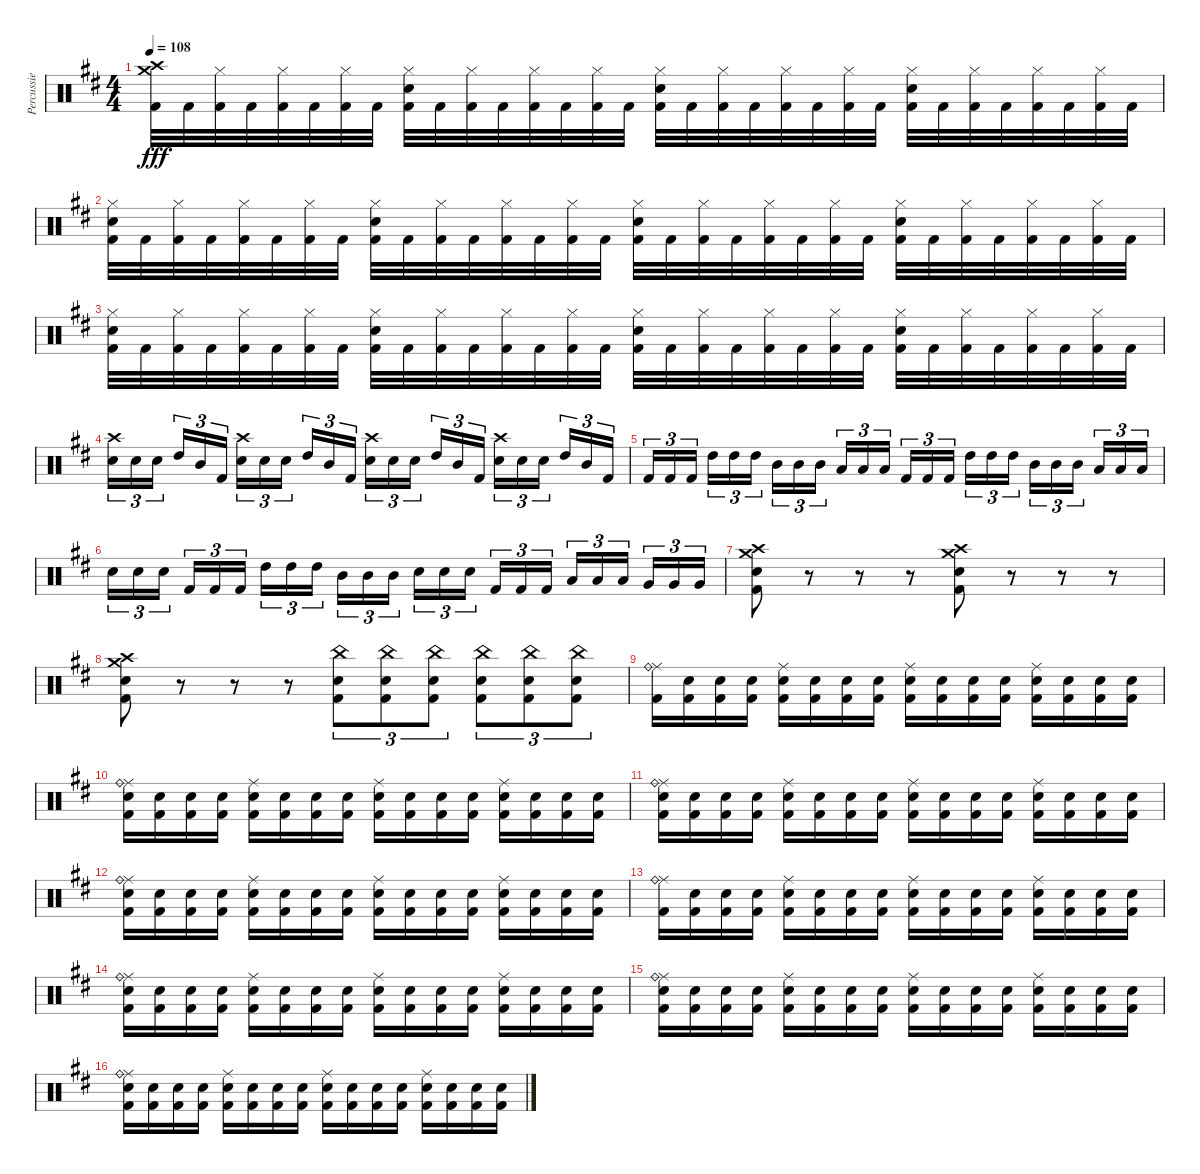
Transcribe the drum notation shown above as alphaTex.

\track ("Percussie" "Percussie") {instrument percussion}
\staff {score}
\articulation defaults
\ts (4 4)
\tempo 108
\clef neutral
\ks d
("Crash high (hit)" "Crash medium (hit)" "Kick (hit) 2").32{dy fff} "Kick (hit) 2".32 ("Hi-Hat (closed)" "Kick (hit) 2").32 "Kick (hit) 2".32 ("Hi-Hat (closed)" "Kick (hit) 2").32 "Kick (hit) 2".32 ("Hi-Hat (closed)" "Kick (hit) 2").32 "Kick (hit) 2".32 ("Hi-Hat (closed)" "Snare (hit) 2" "Kick (hit) 2").32 "Kick (hit) 2".32 ("Hi-Hat (closed)" "Kick (hit) 2").32 "Kick (hit) 2".32 ("Hi-Hat (closed)" "Kick (hit) 2").32 "Kick (hit) 2".32 ("Hi-Hat (closed)" "Kick (hit) 2").32 "Kick (hit) 2".32 ("Hi-Hat (closed)" "Snare (hit) 2" "Kick (hit) 2").32 "Kick (hit) 2".32 ("Hi-Hat (closed)" "Kick (hit) 2").32 "Kick (hit) 2".32 ("Hi-Hat (closed)" "Kick (hit) 2").32 "Kick (hit) 2".32 ("Hi-Hat (closed)" "Kick (hit) 2").32 "Kick (hit) 2".32 ("Hi-Hat (closed)" "Snare (hit) 2" "Kick (hit) 2").32 "Kick (hit) 2".32 ("Hi-Hat (closed)" "Kick (hit) 2").32 "Kick (hit) 2".32 ("Hi-Hat (closed)" "Kick (hit) 2").32 "Kick (hit) 2".32 ("Hi-Hat (closed)" "Kick (hit) 2").32 "Kick (hit) 2".32 |
("Hi-Hat (closed)" "Snare (hit) 2" "Kick (hit) 2").32 "Kick (hit) 2".32 ("Hi-Hat (closed)" "Kick (hit) 2").32 "Kick (hit) 2".32 ("Hi-Hat (closed)" "Kick (hit) 2").32 "Kick (hit) 2".32 ("Hi-Hat (closed)" "Kick (hit) 2").32 "Kick (hit) 2".32 ("Hi-Hat (closed)" "Snare (hit) 2" "Kick (hit) 2").32 "Kick (hit) 2".32 ("Hi-Hat (closed)" "Kick (hit) 2").32 "Kick (hit) 2".32 ("Hi-Hat (closed)" "Kick (hit) 2").32 "Kick (hit) 2".32 ("Hi-Hat (closed)" "Kick (hit) 2").32 "Kick (hit) 2".32 ("Hi-Hat (closed)" "Snare (hit) 2" "Kick (hit) 2").32 "Kick (hit) 2".32 ("Hi-Hat (closed)" "Kick (hit) 2").32 "Kick (hit) 2".32 ("Hi-Hat (closed)" "Kick (hit) 2").32 "Kick (hit) 2".32 ("Hi-Hat (closed)" "Kick (hit) 2").32 "Kick (hit) 2".32 ("Hi-Hat (closed)" "Snare (hit) 2" "Kick (hit) 2").32 "Kick (hit) 2".32 ("Hi-Hat (closed)" "Kick (hit) 2").32 "Kick (hit) 2".32 ("Hi-Hat (closed)" "Kick (hit) 2").32 "Kick (hit) 2".32 ("Hi-Hat (closed)" "Kick (hit) 2").32 "Kick (hit) 2".32 |
("Hi-Hat (closed)" "Snare (hit) 2" "Kick (hit) 2").32 "Kick (hit) 2".32 ("Hi-Hat (closed)" "Kick (hit) 2").32 "Kick (hit) 2".32 ("Hi-Hat (closed)" "Kick (hit) 2").32 "Kick (hit) 2".32 ("Hi-Hat (closed)" "Kick (hit) 2").32 "Kick (hit) 2".32 ("Hi-Hat (closed)" "Snare (hit) 2" "Kick (hit) 2").32 "Kick (hit) 2".32 ("Hi-Hat (closed)" "Kick (hit) 2").32 "Kick (hit) 2".32 ("Hi-Hat (closed)" "Kick (hit) 2").32 "Kick (hit) 2".32 ("Hi-Hat (closed)" "Kick (hit) 2").32 "Kick (hit) 2".32 ("Hi-Hat (closed)" "Snare (hit) 2" "Kick (hit) 2").32 "Kick (hit) 2".32 ("Hi-Hat (closed)" "Kick (hit) 2").32 "Kick (hit) 2".32 ("Hi-Hat (closed)" "Kick (hit) 2").32 "Kick (hit) 2".32 ("Hi-Hat (closed)" "Kick (hit) 2").32 "Kick (hit) 2".32 ("Hi-Hat (closed)" "Snare (hit) 2" "Kick (hit) 2").32 "Kick (hit) 2".32 ("Hi-Hat (closed)" "Kick (hit) 2").32 "Kick (hit) 2".32 ("Hi-Hat (closed)" "Kick (hit) 2").32 "Kick (hit) 2".32 ("Hi-Hat (closed)" "Kick (hit) 2").32 "Kick (hit) 2".32 |
("Crash high (hit)" "Snare (hit) 2").16{tu (3 2)} "Snare (hit) 2".16{tu (3 2)} "Snare (hit) 2".16{tu (3 2) beam splitsecondary} "High Tom (hit)".16{tu (3 2)} "Mid Tom (hit)".16{tu (3 2)} "Kick (hit) 2".16{tu (3 2)} ("Crash high (hit)" "Snare (hit) 2").16{tu (3 2)} "Snare (hit) 2".16{tu (3 2)} "Snare (hit) 2".16{tu (3 2) beam splitsecondary} "High Tom (hit)".16{tu (3 2)} "Mid Tom (hit)".16{tu (3 2)} "Kick (hit) 2".16{tu (3 2)} ("Crash high (hit)" "Snare (hit) 2").16{tu (3 2)} "Snare (hit) 2".16{tu (3 2)} "Snare (hit) 2".16{tu (3 2) beam splitsecondary} "High Tom (hit)".16{tu (3 2)} "Mid Tom (hit)".16{tu (3 2)} "Kick (hit) 2".16{tu (3 2)} ("Crash high (hit)" "Snare (hit) 2").16{tu (3 2)} "Snare (hit) 2".16{tu (3 2)} "Snare (hit) 2".16{tu (3 2) beam splitsecondary} "High Tom (hit)".16{tu (3 2)} "Mid Tom (hit)".16{tu (3 2)} "Kick (hit) 2".16{tu (3 2)} |
"Kick (hit) 2".16{tu (3 2)} "Kick (hit) 2".16{tu (3 2)} "Kick (hit) 2".16{tu (3 2) beam splitsecondary} "High Tom (hit)".16{tu (3 2)} "High Tom (hit)".16{tu (3 2)} "High Tom (hit)".16{tu (3 2)} "Mid Tom (hit)".16{tu (3 2)} "Mid Tom (hit)".16{tu (3 2)} "Mid Tom (hit)".16{tu (3 2) beam splitsecondary} "Low Tom (hit)".16{tu (3 2)} "Low Tom (hit)".16{tu (3 2)} "Low Tom (hit)".16{tu (3 2)} "Kick (hit) 2".16{tu (3 2)} "Kick (hit) 2".16{tu (3 2)} "Kick (hit) 2".16{tu (3 2) beam splitsecondary} "High Tom (hit)".16{tu (3 2)} "High Tom (hit)".16{tu (3 2)} "High Tom (hit)".16{tu (3 2)} "Mid Tom (hit)".16{tu (3 2)} "Mid Tom (hit)".16{tu (3 2)} "Mid Tom (hit)".16{tu (3 2) beam splitsecondary} "Low Tom (hit)".16{tu (3 2)} "Low Tom (hit)".16{tu (3 2)} "Low Tom (hit)".16{tu (3 2)} |
"Snare (hit) 2".16{tu (3 2)} "Snare (hit) 2".16{tu (3 2)} "Snare (hit) 2".16{tu (3 2) beam splitsecondary} "Kick (hit) 2".16{tu (3 2)} "Kick (hit) 2".16{tu (3 2)} "Kick (hit) 2".16{tu (3 2)} "High Tom (hit)".16{tu (3 2)} "High Tom (hit)".16{tu (3 2)} "High Tom (hit)".16{tu (3 2) beam splitsecondary} "Mid Tom (hit)".16{tu (3 2)} "Mid Tom (hit)".16{tu (3 2)} "Mid Tom (hit)".16{tu (3 2)} "Snare (hit) 2".16{tu (3 2)} "Snare (hit) 2".16{tu (3 2)} "Snare (hit) 2".16{tu (3 2) beam splitsecondary} "Kick (hit) 2".16{tu (3 2)} "Kick (hit) 2".16{tu (3 2)} "Kick (hit) 2".16{tu (3 2)} "Low Tom (hit)".16{tu (3 2)} "Low Tom (hit)".16{tu (3 2)} "Low Tom (hit)".16{tu (3 2) beam splitsecondary} "Very Low Tom (hit)".16{tu (3 2)} "Very Low Tom (hit)".16{tu (3 2)} "Very Low Tom (hit)".16{tu (3 2)} |
("Crash medium (hit)" "Crash high (hit)" "Snare (hit) 2" "Kick (hit) 2").8 r.8 r.8 r.8 ("Crash medium (hit)" "Crash high (hit)" "Snare (hit) 2" "Kick (hit) 2").8 r.8 r.8 r.8 |
("Crash medium (hit)" "Crash high (hit)" "Snare (hit) 2" "Kick (hit) 2").8 r.8{volume 0} r.8{volume 13} r.8 ("Kick (hit) 2" "China (hit)" "Snare (hit) 2").8{tu (3 2)} ("Kick (hit) 2" "China (hit)" "Snare (hit) 2").8{tu (3 2)} ("Kick (hit) 2" "China (hit)" "Snare (hit) 2").8{tu (3 2)} ("Kick (hit) 2" "China (hit)" "Snare (hit) 2").8{tu (3 2)} ("Kick (hit) 2" "China (hit)" "Snare (hit) 2").8{tu (3 2)} ("Kick (hit) 2" "China (hit)" "Snare (hit) 2").8{tu (3 2)} |
("Ride (middle)" "Ride (bell)" "Kick (hit) 2").16 ("Snare (hit) 2" "Kick (hit) 2").16 ("Snare (hit) 2" "Kick (hit) 2").16 ("Snare (hit) 2" "Kick (hit) 2").16 ("Ride (middle)" "Snare (hit) 2" "Kick (hit) 2").16 ("Snare (hit) 2" "Kick (hit) 2").16 ("Snare (hit) 2" "Kick (hit) 2").16 ("Snare (hit) 2" "Kick (hit) 2").16 ("Ride (middle)" "Snare (hit) 2" "Kick (hit) 2").16 ("Snare (hit) 2" "Kick (hit) 2").16 ("Snare (hit) 2" "Kick (hit) 2").16 ("Snare (hit) 2" "Kick (hit) 2").16 ("Ride (middle)" "Snare (hit) 2" "Kick (hit) 2").16 ("Snare (hit) 2" "Kick (hit) 2").16 ("Snare (hit) 2" "Kick (hit) 2").16 ("Snare (hit) 2" "Kick (hit) 2").16 |
("Ride (middle)" "Ride (bell)" "Snare (hit) 2" "Kick (hit) 2").16 ("Snare (hit) 2" "Kick (hit) 2").16 ("Snare (hit) 2" "Kick (hit) 2").16 ("Snare (hit) 2" "Kick (hit) 2").16 ("Ride (middle)" "Snare (hit) 2" "Kick (hit) 2").16 ("Snare (hit) 2" "Kick (hit) 2").16 ("Snare (hit) 2" "Kick (hit) 2").16 ("Snare (hit) 2" "Kick (hit) 2").16 ("Ride (middle)" "Snare (hit) 2" "Kick (hit) 2").16 ("Snare (hit) 2" "Kick (hit) 2").16 ("Snare (hit) 2" "Kick (hit) 2").16 ("Snare (hit) 2" "Kick (hit) 2").16 ("Ride (middle)" "Snare (hit) 2" "Kick (hit) 2").16 ("Snare (hit) 2" "Kick (hit) 2").16 ("Snare (hit) 2" "Kick (hit) 2").16 ("Snare (hit) 2" "Kick (hit) 2").16 |
("Ride (middle)" "Ride (bell)" "Snare (hit) 2" "Kick (hit) 2").16 ("Snare (hit) 2" "Kick (hit) 2").16 ("Snare (hit) 2" "Kick (hit) 2").16 ("Snare (hit) 2" "Kick (hit) 2").16 ("Ride (middle)" "Snare (hit) 2" "Kick (hit) 2").16 ("Snare (hit) 2" "Kick (hit) 2").16 ("Snare (hit) 2" "Kick (hit) 2").16 ("Snare (hit) 2" "Kick (hit) 2").16 ("Ride (middle)" "Snare (hit) 2" "Kick (hit) 2").16 ("Snare (hit) 2" "Kick (hit) 2").16 ("Snare (hit) 2" "Kick (hit) 2").16 ("Snare (hit) 2" "Kick (hit) 2").16 ("Ride (middle)" "Snare (hit) 2" "Kick (hit) 2").16 ("Snare (hit) 2" "Kick (hit) 2").16 ("Snare (hit) 2" "Kick (hit) 2").16 ("Snare (hit) 2" "Kick (hit) 2").16 |
("Ride (middle)" "Ride (bell)" "Snare (hit) 2" "Kick (hit) 2").16 ("Snare (hit) 2" "Kick (hit) 2").16 ("Snare (hit) 2" "Kick (hit) 2").16 ("Snare (hit) 2" "Kick (hit) 2").16 ("Ride (middle)" "Snare (hit) 2" "Kick (hit) 2").16 ("Snare (hit) 2" "Kick (hit) 2").16 ("Snare (hit) 2" "Kick (hit) 2").16 ("Snare (hit) 2" "Kick (hit) 2").16 ("Ride (middle)" "Snare (hit) 2" "Kick (hit) 2").16 ("Snare (hit) 2" "Kick (hit) 2").16 ("Snare (hit) 2" "Kick (hit) 2").16 ("Snare (hit) 2" "Kick (hit) 2").16 ("Ride (middle)" "Snare (hit) 2" "Kick (hit) 2").16 ("Snare (hit) 2" "Kick (hit) 2").16 ("Snare (hit) 2" "Kick (hit) 2").16 ("Snare (hit) 2" "Kick (hit) 2").16 |
("Ride (middle)" "Ride (bell)" "Kick (hit) 2").16 ("Snare (hit) 2" "Kick (hit) 2").16 ("Snare (hit) 2" "Kick (hit) 2").16 ("Snare (hit) 2" "Kick (hit) 2").16 ("Ride (middle)" "Snare (hit) 2" "Kick (hit) 2").16 ("Snare (hit) 2" "Kick (hit) 2").16 ("Snare (hit) 2" "Kick (hit) 2").16 ("Snare (hit) 2" "Kick (hit) 2").16 ("Ride (middle)" "Snare (hit) 2" "Kick (hit) 2").16 ("Snare (hit) 2" "Kick (hit) 2").16 ("Snare (hit) 2" "Kick (hit) 2").16 ("Snare (hit) 2" "Kick (hit) 2").16 ("Ride (middle)" "Snare (hit) 2" "Kick (hit) 2").16 ("Snare (hit) 2" "Kick (hit) 2").16 ("Snare (hit) 2" "Kick (hit) 2").16 ("Snare (hit) 2" "Kick (hit) 2").16 |
("Ride (middle)" "Ride (bell)" "Snare (hit) 2" "Kick (hit) 2").16 ("Snare (hit) 2" "Kick (hit) 2").16 ("Snare (hit) 2" "Kick (hit) 2").16 ("Snare (hit) 2" "Kick (hit) 2").16 ("Ride (middle)" "Snare (hit) 2" "Kick (hit) 2").16 ("Snare (hit) 2" "Kick (hit) 2").16 ("Snare (hit) 2" "Kick (hit) 2").16 ("Snare (hit) 2" "Kick (hit) 2").16 ("Ride (middle)" "Snare (hit) 2" "Kick (hit) 2").16 ("Snare (hit) 2" "Kick (hit) 2").16 ("Snare (hit) 2" "Kick (hit) 2").16 ("Snare (hit) 2" "Kick (hit) 2").16 ("Ride (middle)" "Snare (hit) 2" "Kick (hit) 2").16 ("Snare (hit) 2" "Kick (hit) 2").16 ("Snare (hit) 2" "Kick (hit) 2").16 ("Snare (hit) 2" "Kick (hit) 2").16 |
("Ride (middle)" "Ride (bell)" "Snare (hit) 2" "Kick (hit) 2").16 ("Snare (hit) 2" "Kick (hit) 2").16 ("Snare (hit) 2" "Kick (hit) 2").16 ("Snare (hit) 2" "Kick (hit) 2").16 ("Ride (middle)" "Snare (hit) 2" "Kick (hit) 2").16 ("Snare (hit) 2" "Kick (hit) 2").16 ("Snare (hit) 2" "Kick (hit) 2").16 ("Snare (hit) 2" "Kick (hit) 2").16 ("Ride (middle)" "Snare (hit) 2" "Kick (hit) 2").16 ("Snare (hit) 2" "Kick (hit) 2").16 ("Snare (hit) 2" "Kick (hit) 2").16 ("Snare (hit) 2" "Kick (hit) 2").16 ("Ride (middle)" "Snare (hit) 2" "Kick (hit) 2").16 ("Snare (hit) 2" "Kick (hit) 2").16 ("Snare (hit) 2" "Kick (hit) 2").16 ("Snare (hit) 2" "Kick (hit) 2").16 |
("Ride (middle)" "Ride (bell)" "Snare (hit) 2" "Kick (hit) 2").16 ("Snare (hit) 2" "Kick (hit) 2").16 ("Snare (hit) 2" "Kick (hit) 2").16 ("Snare (hit) 2" "Kick (hit) 2").16 ("Ride (middle)" "Snare (hit) 2" "Kick (hit) 2").16 ("Snare (hit) 2" "Kick (hit) 2").16 ("Snare (hit) 2" "Kick (hit) 2").16 ("Snare (hit) 2" "Kick (hit) 2").16 ("Ride (middle)" "Snare (hit) 2" "Kick (hit) 2").16 ("Snare (hit) 2" "Kick (hit) 2").16 ("Snare (hit) 2" "Kick (hit) 2").16 ("Snare (hit) 2" "Kick (hit) 2").16 ("Ride (middle)" "Snare (hit) 2" "Kick (hit) 2").16 ("Snare (hit) 2" "Kick (hit) 2").16 ("Snare (hit) 2" "Kick (hit) 2").16 ("Snare (hit) 2" "Kick (hit) 2").16
